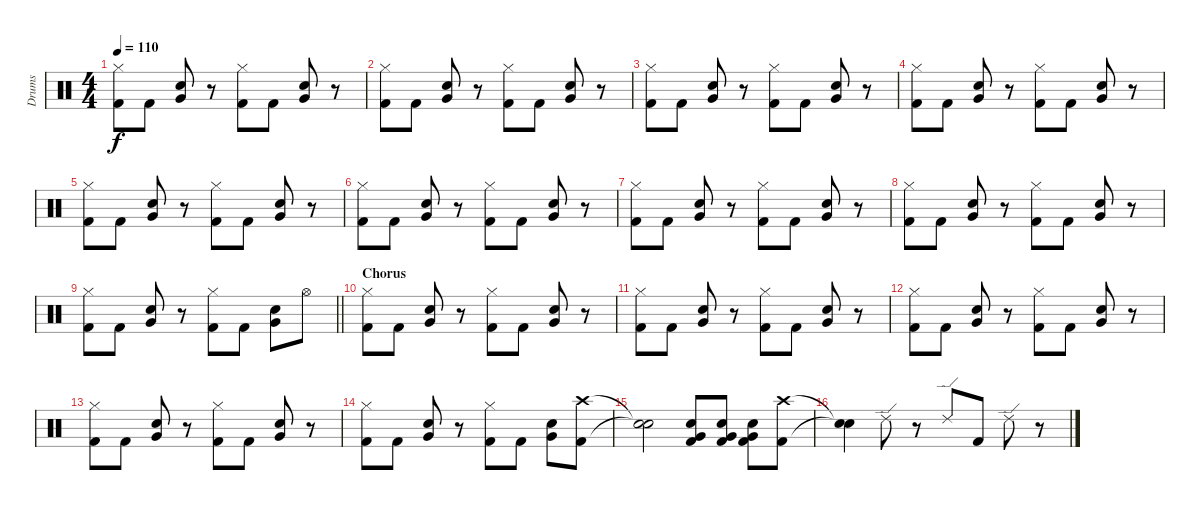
\track ("Drums" "Drums") {instrument percussion}
\staff {score}
\articulation defaults
\ts (4 4)
\tempo 110
\clef neutral
\ks c
("Hi-Hat (closed)" "Kick (hit) 2").8{dy f} "Kick (hit) 2".8 ("Snare (hit) 2" "Very Low Tom (hit)").8 r.8 ("Hi-Hat (closed)" "Kick (hit) 2").8 "Kick (hit) 2".8 ("Snare (hit) 2" "Very Low Tom (hit)").8 r.8 |
("Hi-Hat (closed)" "Kick (hit) 2").8 "Kick (hit) 2".8 ("Snare (hit) 2" "Very Low Tom (hit)").8 r.8 ("Hi-Hat (closed)" "Kick (hit) 2").8 "Kick (hit) 2".8 ("Snare (hit) 2" "Very Low Tom (hit)").8 r.8 |
("Hi-Hat (closed)" "Kick (hit) 2").8 "Kick (hit) 2".8 ("Snare (hit) 2" "Very Low Tom (hit)").8 r.8 ("Hi-Hat (closed)" "Kick (hit) 2").8 "Kick (hit) 2".8 ("Snare (hit) 2" "Very Low Tom (hit)").8 r.8 |
("Hi-Hat (closed)" "Kick (hit) 2").8 "Kick (hit) 2".8 ("Snare (hit) 2" "Very Low Tom (hit)").8 r.8 ("Hi-Hat (closed)" "Kick (hit) 2").8 "Kick (hit) 2".8 ("Snare (hit) 2" "Very Low Tom (hit)").8 r.8 |
("Hi-Hat (closed)" "Kick (hit) 2").8 "Kick (hit) 2".8 ("Snare (hit) 2" "Very Low Tom (hit)").8 r.8 ("Hi-Hat (closed)" "Kick (hit) 2").8 "Kick (hit) 2".8 ("Snare (hit) 2" "Very Low Tom (hit)").8 r.8 |
("Hi-Hat (closed)" "Kick (hit) 2").8 "Kick (hit) 2".8 ("Snare (hit) 2" "Very Low Tom (hit)").8 r.8 ("Hi-Hat (closed)" "Kick (hit) 2").8 "Kick (hit) 2".8 ("Snare (hit) 2" "Very Low Tom (hit)").8 r.8 |
("Hi-Hat (closed)" "Kick (hit) 2").8 "Kick (hit) 2".8 ("Snare (hit) 2" "Very Low Tom (hit)").8 r.8 ("Hi-Hat (closed)" "Kick (hit) 2").8 "Kick (hit) 2".8 ("Snare (hit) 2" "Very Low Tom (hit)").8 r.8 |
("Hi-Hat (closed)" "Kick (hit) 2").8 "Kick (hit) 2".8 ("Snare (hit) 2" "Very Low Tom (hit)").8 r.8 ("Hi-Hat (closed)" "Kick (hit) 2").8 "Kick (hit) 2".8 ("Snare (hit) 2" "Very Low Tom (hit)").8 r.8 |
\barLineRight lightlight
("Hi-Hat (closed)" "Kick (hit) 2").8 "Kick (hit) 2".8 ("Snare (hit) 2" "Very Low Tom (hit)").8 r.8 ("Hi-Hat (closed)" "Kick (hit) 2").8 "Kick (hit) 2".8 ("Snare (hit) 2" "Very Low Tom (hit)").8 "Hi-Hat (open)".8 |
\section ("" "Chorus")
("Hi-Hat (closed)" "Kick (hit) 2").8 "Kick (hit) 2".8 ("Snare (hit) 2" "Very Low Tom (hit)").8 r.8 ("Hi-Hat (closed)" "Kick (hit) 2").8 "Kick (hit) 2".8 ("Snare (hit) 2" "Very Low Tom (hit)").8 r.8 |
("Hi-Hat (closed)" "Kick (hit) 2").8 "Kick (hit) 2".8 ("Snare (hit) 2" "Very Low Tom (hit)").8 r.8 ("Hi-Hat (closed)" "Kick (hit) 2").8 "Kick (hit) 2".8 ("Snare (hit) 2" "Very Low Tom (hit)").8 r.8 |
("Hi-Hat (closed)" "Kick (hit) 2").8 "Kick (hit) 2".8 ("Snare (hit) 2" "Very Low Tom (hit)").8 r.8 ("Hi-Hat (closed)" "Kick (hit) 2").8 "Kick (hit) 2".8 ("Snare (hit) 2" "Very Low Tom (hit)").8 r.8 |
("Hi-Hat (closed)" "Kick (hit) 2").8 "Kick (hit) 2".8 ("Snare (hit) 2" "Very Low Tom (hit)").8 r.8 ("Hi-Hat (closed)" "Kick (hit) 2").8 "Kick (hit) 2".8 ("Snare (hit) 2" "Very Low Tom (hit)").8 r.8 |
("Hi-Hat (closed)" "Kick (hit) 2").8 "Kick (hit) 2".8 ("Snare (hit) 2" "Very Low Tom (hit)").8 r.8 ("Hi-Hat (closed)" "Kick (hit) 2").8 "Kick (hit) 2".8 ("Snare (hit) 2" "Very Low Tom (hit)").8 ("Crash high (hit)" "Kick (hit) 2").8 |
("Snare (hit)"{t} "Snare (hit)"{t}).2 ("Electric Snare (hit)" "Very Low Tom (hit)" "Kick (hit) 2").8 ("Electric Snare (hit)" "Very Low Tom (hit)" "Kick (hit) 2").8 ("Electric Snare (hit)" "Very Low Tom (hit)" "Kick (hit) 2").8 ("Crash high (hit)" "Kick (hit) 2").8 |
("Snare (hit)"{t} "Snare (hit)"{t}).4 "Ride (edge) 2".8 r.8 "Ride (edge) 2".8 "Kick (hit) 2".8 "Ride (edge) 2".8 r.8
